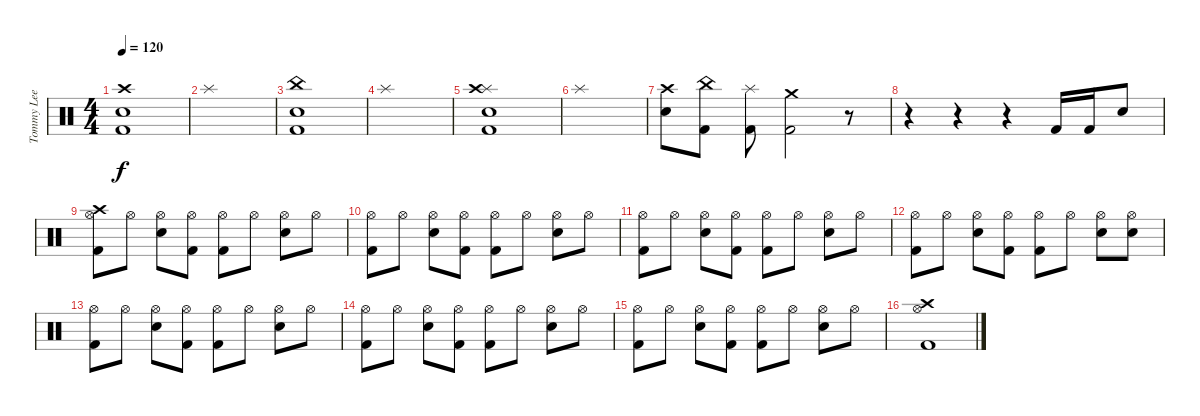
\track ("Tommy Lee" "Tommy Lee") {instrument percussion}
\staff {score}
\articulation defaults
\ts (4 4)
\tempo 120
\clef neutral
\ks c
("Electric Snare (hit)" "Crash high (hit)" "Kick (hit) 2").1{dy f} |
"Splash (hit)".1 |
("Electric Snare (hit)" "China (hit)" "Kick (hit) 2").1 |
"Splash (hit)".1 |
("Snare (hit) 2" "Splash (hit)" "Kick (hit) 2" "Crash high (hit)").1 |
"Splash (hit)".1 |
("Crash high (hit)" "Electric Snare (hit)").8 ("China (hit)" "Kick (hit) 2").8 ("Splash (hit)" "Kick (hit) 2").8 ("Crash medium (hit)" "Kick (hit) 2").2 r.8 |
r.4 r.4 r.4 "Kick (hit) 2".16 "Kick (hit) 2".16 "Electric Snare (hit)".8 |
("Crash high (hit)" "Hi-Hat (open)" "Kick (hit) 2").8 "Hi-Hat (open)".8 ("Hi-Hat (open)" "Electric Snare (hit)").8 ("Hi-Hat (open)" "Kick (hit) 2").8 ("Hi-Hat (open)" "Kick (hit) 2").8 "Hi-Hat (open)".8 ("Hi-Hat (open)" "Electric Snare (hit)").8 "Hi-Hat (open)".8 |
("Hi-Hat (open)" "Kick (hit) 2").8 "Hi-Hat (open)".8 ("Hi-Hat (open)" "Electric Snare (hit)").8 ("Hi-Hat (open)" "Kick (hit) 2").8 ("Hi-Hat (open)" "Kick (hit) 2").8 "Hi-Hat (open)".8 ("Hi-Hat (open)" "Electric Snare (hit)").8 "Hi-Hat (open)".8 |
("Hi-Hat (open)" "Kick (hit) 2").8 "Hi-Hat (open)".8 ("Hi-Hat (open)" "Electric Snare (hit)").8 ("Hi-Hat (open)" "Kick (hit) 2").8 ("Hi-Hat (open)" "Kick (hit) 2").8 "Hi-Hat (open)".8 ("Hi-Hat (open)" "Electric Snare (hit)").8 "Hi-Hat (open)".8 |
("Hi-Hat (open)" "Kick (hit) 2").8 "Hi-Hat (open)".8 ("Hi-Hat (open)" "Electric Snare (hit)").8 ("Hi-Hat (open)" "Kick (hit) 2").8 ("Hi-Hat (open)" "Kick (hit) 2").8 "Hi-Hat (open)".8 ("Hi-Hat (open)" "Electric Snare (hit)").8 ("Hi-Hat (open)" "Electric Snare (hit)").8 |
("Hi-Hat (open)" "Kick (hit) 2").8 "Hi-Hat (open)".8 ("Hi-Hat (open)" "Electric Snare (hit)").8 ("Hi-Hat (open)" "Kick (hit) 2").8 ("Hi-Hat (open)" "Kick (hit) 2").8 "Hi-Hat (open)".8 ("Hi-Hat (open)" "Electric Snare (hit)").8 "Hi-Hat (open)".8 |
("Hi-Hat (open)" "Kick (hit) 2").8 "Hi-Hat (open)".8 ("Hi-Hat (open)" "Electric Snare (hit)").8 ("Hi-Hat (open)" "Kick (hit) 2").8 ("Hi-Hat (open)" "Kick (hit) 2").8 "Hi-Hat (open)".8 ("Hi-Hat (open)" "Electric Snare (hit)").8 "Hi-Hat (open)".8 |
("Hi-Hat (open)" "Kick (hit) 2").8 "Hi-Hat (open)".8 ("Hi-Hat (open)" "Electric Snare (hit)").8 ("Hi-Hat (open)" "Kick (hit) 2").8 ("Hi-Hat (open)" "Kick (hit) 2").8 "Hi-Hat (open)".8 ("Hi-Hat (open)" "Electric Snare (hit)").8 "Hi-Hat (open)".8 |
("Crash high (hit)" "Hi-Hat (open)" "Kick (hit) 2").1
